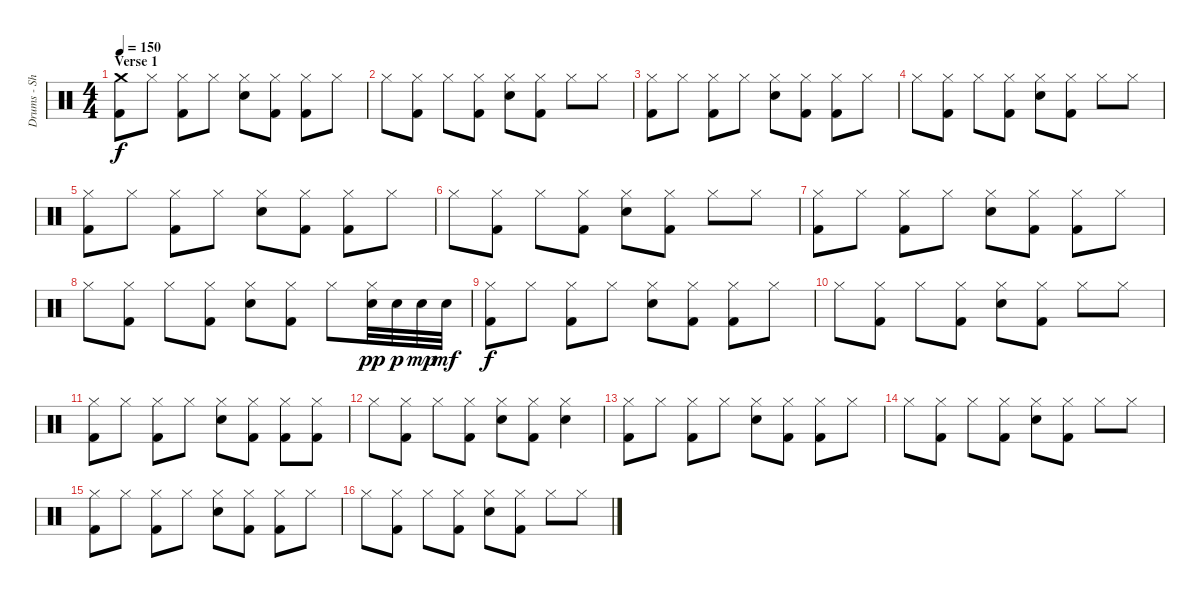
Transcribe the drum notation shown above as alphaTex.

\track ("Drums - Shelton" "Drums - Sh") {instrument percussion}
\staff {score}
\articulation defaults
\ts (4 4)
\section ("" "Verse 1")
\tempo 150
\clef neutral
\ks c
("Crash medium (hit)" "Kick (hit) 2").8{dy f} "Hi-Hat (closed)".8 ("Hi-Hat (closed)" "Kick (hit) 2").8 "Hi-Hat (closed)".8 ("Hi-Hat (closed)" "Electric Snare (hit)").8 ("Hi-Hat (closed)" "Kick (hit) 2").8 ("Hi-Hat (closed)" "Kick (hit) 2").8 "Hi-Hat (closed)".8 |
"Hi-Hat (closed)".8 ("Hi-Hat (closed)" "Kick (hit) 2").8 "Hi-Hat (closed)".8 ("Hi-Hat (closed)" "Kick (hit) 2").8 ("Hi-Hat (closed)" "Electric Snare (hit)").8 ("Hi-Hat (closed)" "Kick (hit) 2").8 "Hi-Hat (closed)".8 "Hi-Hat (closed)".8 |
("Hi-Hat (closed)" "Kick (hit) 2").8 "Hi-Hat (closed)".8 ("Hi-Hat (closed)" "Kick (hit) 2").8 "Hi-Hat (closed)".8 ("Hi-Hat (closed)" "Electric Snare (hit)").8 ("Hi-Hat (closed)" "Kick (hit) 2").8 ("Hi-Hat (closed)" "Kick (hit) 2").8 "Hi-Hat (closed)".8 |
"Hi-Hat (closed)".8 ("Hi-Hat (closed)" "Kick (hit) 2").8 "Hi-Hat (closed)".8 ("Hi-Hat (closed)" "Kick (hit) 2").8 ("Hi-Hat (closed)" "Electric Snare (hit)").8 ("Hi-Hat (closed)" "Kick (hit) 2").8 "Hi-Hat (closed)".8 "Hi-Hat (closed)".8 |
("Hi-Hat (closed)" "Kick (hit) 2").8 "Hi-Hat (closed)".8 ("Hi-Hat (closed)" "Kick (hit) 2").8 "Hi-Hat (closed)".8 ("Hi-Hat (closed)" "Electric Snare (hit)").8 ("Hi-Hat (closed)" "Kick (hit) 2").8 ("Hi-Hat (closed)" "Kick (hit) 2").8 "Hi-Hat (closed)".8 |
"Hi-Hat (closed)".8 ("Hi-Hat (closed)" "Kick (hit) 2").8 "Hi-Hat (closed)".8 ("Hi-Hat (closed)" "Kick (hit) 2").8 ("Hi-Hat (closed)" "Electric Snare (hit)").8 ("Hi-Hat (closed)" "Kick (hit) 2").8 "Hi-Hat (closed)".8 "Hi-Hat (closed)".8 |
("Hi-Hat (closed)" "Kick (hit) 2").8 "Hi-Hat (closed)".8 ("Hi-Hat (closed)" "Kick (hit) 2").8 "Hi-Hat (closed)".8 ("Hi-Hat (closed)" "Electric Snare (hit)").8 ("Hi-Hat (closed)" "Kick (hit) 2").8 ("Hi-Hat (closed)" "Kick (hit) 2").8 "Hi-Hat (closed)".8 |
"Hi-Hat (closed)".8 ("Hi-Hat (closed)" "Kick (hit) 2").8 "Hi-Hat (closed)".8 ("Hi-Hat (closed)" "Kick (hit) 2").8 ("Hi-Hat (closed)" "Electric Snare (hit)").8 ("Hi-Hat (closed)" "Kick (hit) 2").8 "Hi-Hat (closed)".8 ("Hi-Hat (closed)" "Electric Snare (hit)").32{dy pp} "Electric Snare (hit)".32{dy p} "Electric Snare (hit)".32{dy mp} "Electric Snare (hit)".32{dy mf} |
("Hi-Hat (closed)" "Kick (hit) 2").8{dy f} "Hi-Hat (closed)".8 ("Hi-Hat (closed)" "Kick (hit) 2").8 "Hi-Hat (closed)".8 ("Hi-Hat (closed)" "Electric Snare (hit)").8 ("Hi-Hat (closed)" "Kick (hit) 2").8 ("Hi-Hat (closed)" "Kick (hit) 2").8 "Hi-Hat (closed)".8 |
"Hi-Hat (closed)".8 ("Hi-Hat (closed)" "Kick (hit) 2").8 "Hi-Hat (closed)".8 ("Hi-Hat (closed)" "Kick (hit) 2").8 ("Hi-Hat (closed)" "Electric Snare (hit)").8 ("Hi-Hat (closed)" "Kick (hit) 2").8 "Hi-Hat (closed)".8 "Hi-Hat (closed)".8 |
("Hi-Hat (closed)" "Kick (hit) 2").8 "Hi-Hat (closed)".8 ("Hi-Hat (closed)" "Kick (hit) 2").8 "Hi-Hat (closed)".8 ("Hi-Hat (closed)" "Electric Snare (hit)").8 ("Hi-Hat (closed)" "Kick (hit) 2").8 ("Hi-Hat (closed)" "Kick (hit) 2").8 ("Hi-Hat (closed)" "Kick (hit) 2").8 |
"Hi-Hat (closed)".8 ("Hi-Hat (closed)" "Kick (hit) 2").8 "Hi-Hat (closed)".8 ("Hi-Hat (closed)" "Kick (hit) 2").8 ("Hi-Hat (closed)" "Electric Snare (hit)").8 ("Hi-Hat (closed)" "Kick (hit) 2").8 ("Hi-Hat (closed)" "Electric Snare (hit)").4 |
("Hi-Hat (closed)" "Kick (hit) 2").8 "Hi-Hat (closed)".8 ("Hi-Hat (closed)" "Kick (hit) 2").8 "Hi-Hat (closed)".8 ("Hi-Hat (closed)" "Electric Snare (hit)").8 ("Hi-Hat (closed)" "Kick (hit) 2").8 ("Hi-Hat (closed)" "Kick (hit) 2").8 "Hi-Hat (closed)".8 |
"Hi-Hat (closed)".8 ("Hi-Hat (closed)" "Kick (hit) 2").8 "Hi-Hat (closed)".8 ("Hi-Hat (closed)" "Kick (hit) 2").8 ("Hi-Hat (closed)" "Electric Snare (hit)").8 ("Hi-Hat (closed)" "Kick (hit) 2").8 "Hi-Hat (closed)".8 "Hi-Hat (closed)".8 |
("Hi-Hat (closed)" "Kick (hit) 2").8 "Hi-Hat (closed)".8 ("Hi-Hat (closed)" "Kick (hit) 2").8 "Hi-Hat (closed)".8 ("Hi-Hat (closed)" "Electric Snare (hit)").8 ("Hi-Hat (closed)" "Kick (hit) 2").8 ("Hi-Hat (closed)" "Kick (hit) 2").8 "Hi-Hat (closed)".8 |
"Hi-Hat (closed)".8 ("Hi-Hat (closed)" "Kick (hit) 2").8 "Hi-Hat (closed)".8 ("Hi-Hat (closed)" "Kick (hit) 2").8 ("Hi-Hat (closed)" "Electric Snare (hit)").8 ("Hi-Hat (closed)" "Kick (hit) 2").8 "Hi-Hat (closed)".8 "Hi-Hat (closed)".8
